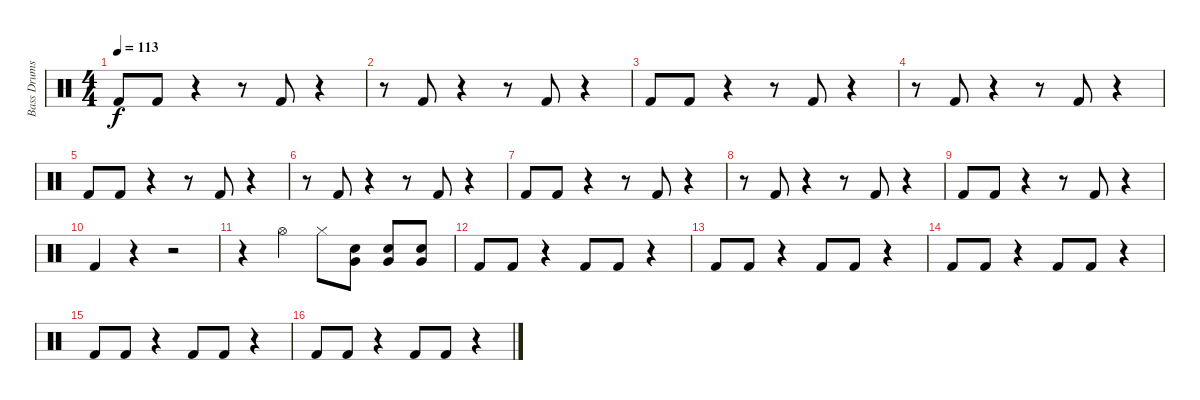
\track ("Bass Drums" "Bass Drums") {instrument percussion}
\staff {score}
\articulation defaults
\ts (4 4)
\tempo 113
\clef neutral
\ks c "Kick (hit) 2".8{dy f} "Kick (hit) 2".8
r.4 r.8 "Kick (hit) 2".8 r.4 |
r.8 "Kick (hit) 2".8 r.4 r.8 "Kick (hit) 2".8 r.4 |
"Kick (hit) 2".8 "Kick (hit) 2".8 r.4 r.8 "Kick (hit) 2".8 r.4 |
r.8 "Kick (hit) 2".8 r.4 r.8 "Kick (hit) 2".8 r.4 |
"Kick (hit) 2".8 "Kick (hit) 2".8 r.4 r.8 "Kick (hit) 2".8 r.4 |
r.8 "Kick (hit) 2".8 r.4 r.8 "Kick (hit) 2".8 r.4 |
"Kick (hit) 2".8 "Kick (hit) 2".8 r.4 r.8 "Kick (hit) 2".8 r.4 |
r.8 "Kick (hit) 2".8 r.4 r.8 "Kick (hit) 2".8 r.4 |
"Kick (hit) 2".8 "Kick (hit) 2".8 r.4 r.8 "Kick (hit) 2".8 r.4 |
"Kick (hit) 2".4 r.4 r.2 |
r.4 "Hi-Hat (open)".4 "Hi-Hat (closed)".8 ("Snare (hit) 2" "Very Low Tom (hit)").8 ("Snare (hit) 2" "Very Low Tom (hit)").8 ("Snare (hit) 2" "Very Low Tom (hit)").8 |
"Kick (hit) 2".8 "Kick (hit) 2".8 r.4 "Kick (hit) 2".8 "Kick (hit) 2".8 r.4 |
"Kick (hit) 2".8 "Kick (hit) 2".8 r.4 "Kick (hit) 2".8 "Kick (hit) 2".8 r.4 |
"Kick (hit) 2".8 "Kick (hit) 2".8 r.4 "Kick (hit) 2".8 "Kick (hit) 2".8 r.4 |
"Kick (hit) 2".8 "Kick (hit) 2".8 r.4 "Kick (hit) 2".8 "Kick (hit) 2".8 r.4 |
"Kick (hit) 2".8 "Kick (hit) 2".8 r.4 "Kick (hit) 2".8 "Kick (hit) 2".8 r.4
